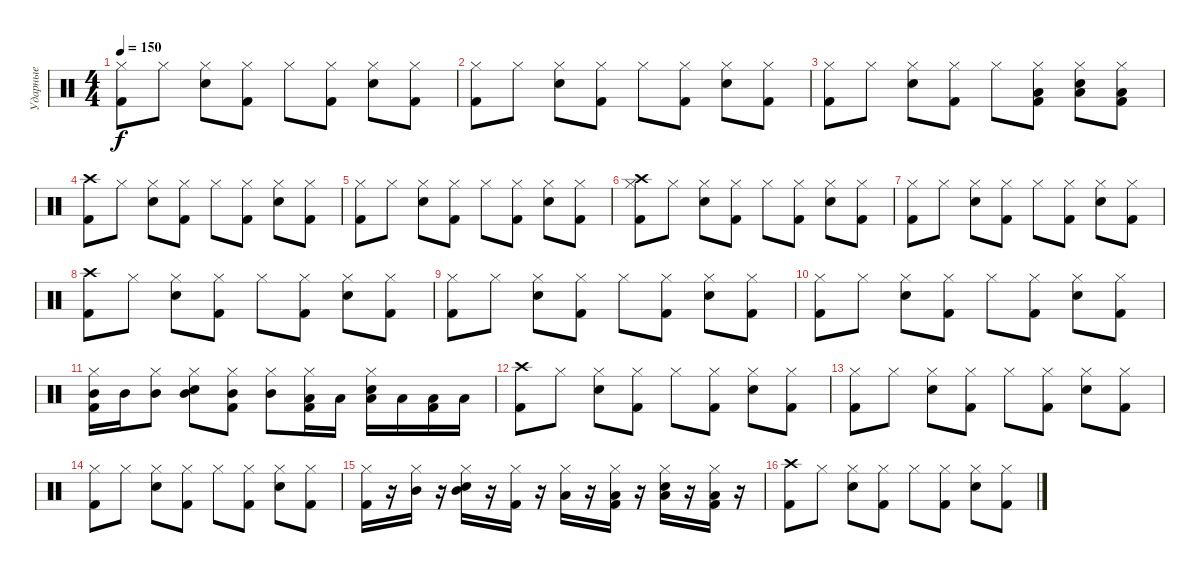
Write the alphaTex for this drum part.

\track ("Ударные" "Ударные") {instrument percussion}
\staff {score}
\articulation defaults
\ts (4 4)
\tempo 150
\clef neutral
\ks c
("Hi-Hat (closed)" "Kick (hit) 2").8{dy f} "Hi-Hat (closed)".8 ("Hi-Hat (closed)" "Snare (hit) 2").8 ("Hi-Hat (closed)" "Kick (hit) 2").8 "Hi-Hat (closed)".8 ("Hi-Hat (closed)" "Kick (hit) 2").8 ("Hi-Hat (closed)" "Snare (hit) 2").8 ("Hi-Hat (closed)" "Kick (hit) 2").8 |
("Hi-Hat (closed)" "Kick (hit) 2").8 "Hi-Hat (closed)".8 ("Hi-Hat (closed)" "Snare (hit) 2").8 ("Hi-Hat (closed)" "Kick (hit) 2").8 "Hi-Hat (closed)".8 ("Hi-Hat (closed)" "Kick (hit) 2").8 ("Hi-Hat (closed)" "Snare (hit) 2").8 ("Hi-Hat (closed)" "Kick (hit) 2").8 |
("Hi-Hat (closed)" "Kick (hit) 2").8 "Hi-Hat (closed)".8 ("Hi-Hat (closed)" "Snare (hit) 2").8 ("Hi-Hat (closed)" "Kick (hit) 2").8 "Hi-Hat (closed)".8 ("Hi-Hat (closed)" "Low Tom (hit)" "Kick (hit) 2").8 ("Hi-Hat (closed)" "Low Tom (hit)" "Snare (hit) 2").8 ("Hi-Hat (closed)" "Low Tom (hit)" "Kick (hit) 2").8 |
("Crash high (hit)" "Kick (hit) 2").8 "Hi-Hat (closed)".8 ("Hi-Hat (closed)" "Snare (hit) 2").8 ("Hi-Hat (closed)" "Kick (hit) 2").8 "Hi-Hat (closed)".8 ("Hi-Hat (closed)" "Kick (hit) 2").8 ("Hi-Hat (closed)" "Snare (hit) 2").8 ("Hi-Hat (closed)" "Kick (hit) 2").8 |
("Hi-Hat (closed)" "Kick (hit) 2").8 "Hi-Hat (closed)".8 ("Hi-Hat (closed)" "Snare (hit) 2").8 ("Hi-Hat (closed)" "Kick (hit) 2").8 "Hi-Hat (closed)".8 ("Hi-Hat (closed)" "Kick (hit) 2").8 ("Hi-Hat (closed)" "Snare (hit) 2").8 ("Hi-Hat (closed)" "Kick (hit) 2").8 |
("Hi-Hat (closed)" "Crash high (hit)" "Kick (hit) 2").8 "Hi-Hat (closed)".8 ("Hi-Hat (closed)" "Snare (hit) 2").8 ("Hi-Hat (closed)" "Kick (hit) 2").8 "Hi-Hat (closed)".8 ("Hi-Hat (closed)" "Kick (hit) 2").8 ("Hi-Hat (closed)" "Snare (hit) 2").8 ("Hi-Hat (closed)" "Kick (hit) 2").8 |
("Hi-Hat (closed)" "Kick (hit) 2").8 "Hi-Hat (closed)".8 ("Hi-Hat (closed)" "Snare (hit) 2").8 ("Hi-Hat (closed)" "Kick (hit) 2").8 "Hi-Hat (closed)".8 ("Hi-Hat (closed)" "Kick (hit) 2").8 ("Hi-Hat (closed)" "Snare (hit) 2").8 ("Hi-Hat (closed)" "Kick (hit) 2").8 |
("Crash high (hit)" "Kick (hit) 2").8 "Hi-Hat (closed)".8 ("Hi-Hat (closed)" "Snare (hit) 2").8 ("Hi-Hat (closed)" "Kick (hit) 2").8 "Hi-Hat (closed)".8 ("Hi-Hat (closed)" "Kick (hit) 2").8 ("Hi-Hat (closed)" "Snare (hit) 2").8 ("Hi-Hat (closed)" "Kick (hit) 2").8 |
("Hi-Hat (closed)" "Kick (hit) 2").8 "Hi-Hat (closed)".8 ("Hi-Hat (closed)" "Snare (hit) 2").8 ("Hi-Hat (closed)" "Kick (hit) 2").8 "Hi-Hat (closed)".8 ("Hi-Hat (closed)" "Kick (hit) 2").8 ("Hi-Hat (closed)" "Snare (hit) 2").8 ("Hi-Hat (closed)" "Kick (hit) 2").8 |
("Hi-Hat (closed)" "Kick (hit) 2").8 "Hi-Hat (closed)".8 ("Hi-Hat (closed)" "Snare (hit) 2").8 ("Hi-Hat (closed)" "Kick (hit) 2").8 "Hi-Hat (closed)".8 ("Hi-Hat (closed)" "Kick (hit) 2").8 ("Hi-Hat (closed)" "Snare (hit) 2").8 ("Hi-Hat (closed)" "Kick (hit) 2").8 |
("Mid Tom (hit)" "Hi-Hat (closed)" "Kick (hit) 2").16 "Mid Tom (hit)".16 ("Mid Tom (hit)" "Hi-Hat (closed)").8 ("Mid Tom (hit)" "Hi-Hat (closed)" "Snare (hit) 2").8 ("Mid Tom (hit)" "Hi-Hat (closed)" "Kick (hit) 2").8 ("Mid Tom (hit)" "Hi-Hat (closed)").8 ("Low Tom (hit)" "Hi-Hat (closed)" "Kick (hit) 2").16 "Low Tom (hit)".16 ("Low Tom (hit)" "Hi-Hat (closed)" "Snare (hit) 2").16 "Low Tom (hit)".16 ("Low Tom (hit)" "Kick (hit) 2").16 "Low Tom (hit)".16 |
("Crash high (hit)" "Kick (hit) 2").8 "Hi-Hat (closed)".8 ("Hi-Hat (closed)" "Snare (hit) 2").8 ("Hi-Hat (closed)" "Kick (hit) 2").8 "Hi-Hat (closed)".8 ("Hi-Hat (closed)" "Kick (hit) 2").8 ("Hi-Hat (closed)" "Snare (hit) 2").8 ("Hi-Hat (closed)" "Kick (hit) 2").8 |
("Hi-Hat (closed)" "Kick (hit) 2").8 "Hi-Hat (closed)".8 ("Hi-Hat (closed)" "Snare (hit) 2").8 ("Hi-Hat (closed)" "Kick (hit) 2").8 "Hi-Hat (closed)".8 ("Hi-Hat (closed)" "Kick (hit) 2").8 ("Hi-Hat (closed)" "Snare (hit) 2").8 ("Hi-Hat (closed)" "Kick (hit) 2").8 |
("Hi-Hat (closed)" "Kick (hit) 2").8 "Hi-Hat (closed)".8 ("Hi-Hat (closed)" "Snare (hit) 2").8 ("Hi-Hat (closed)" "Kick (hit) 2").8 "Hi-Hat (closed)".8 ("Hi-Hat (closed)" "Kick (hit) 2").8 ("Hi-Hat (closed)" "Snare (hit) 2").8 ("Hi-Hat (closed)" "Kick (hit) 2").8 |
("Hi-Hat (closed)" "Kick (hit) 2").16 r.16 ("Mid Tom (hit)" "Hi-Hat (closed)").16 r.16 ("Mid Tom (hit)" "Hi-Hat (closed)" "Snare (hit) 2").16 r.16 ("Hi-Hat (closed)" "Kick (hit) 2").16 r.16 ("Low Tom (hit)" "Hi-Hat (closed)").16 r.16 ("Low Tom (hit)" "Hi-Hat (closed)" "Kick (hit) 2").16 r.16 ("Low Tom (hit)" "Hi-Hat (closed)" "Snare (hit) 2").16 r.16 ("Low Tom (hit)" "Hi-Hat (closed)" "Kick (hit) 2").16 r.16 |
("Crash high (hit)" "Kick (hit) 2").8 "Hi-Hat (closed)".8 ("Hi-Hat (closed)" "Snare (hit) 2").8 ("Hi-Hat (closed)" "Kick (hit) 2").8 "Hi-Hat (closed)".8 ("Hi-Hat (closed)" "Kick (hit) 2").8 ("Hi-Hat (closed)" "Snare (hit) 2").8 ("Hi-Hat (closed)" "Kick (hit) 2").8
